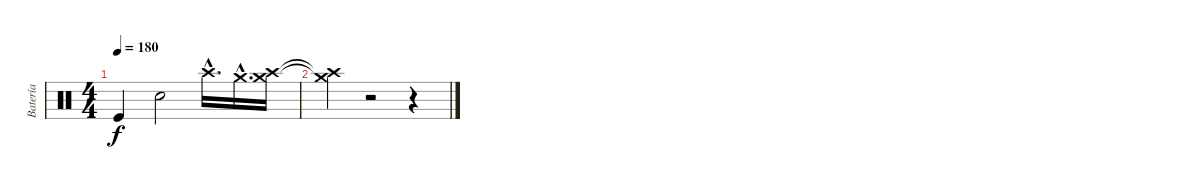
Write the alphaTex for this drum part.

\track ("Batería" "Batería") {instrument percussion}
\staff {score}
\articulation defaults
\ts (4 4)
\tempo 180
\clef neutral
\ks c "Kick (hit)".4{dy f} "Snare (hit) 2".2 "Crash high (hit)"{hac}.16{d} "Crash medium (hit)"{hac}.16{d}
("Crash medium (hit)" "Crash high (hit)").16 |
("Crash medium (hit)"{t} "Crash high (hit)"{t}).4 r.2 r.4
